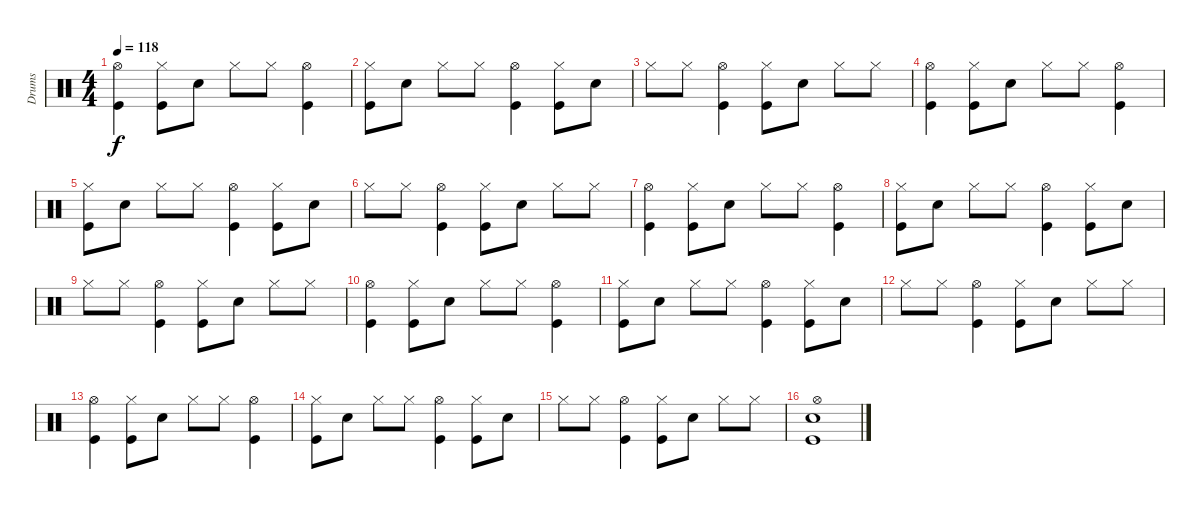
\track ("Drums" "Drums") {instrument percussion}
\staff {score}
\articulation defaults
\ts (4 4)
\tempo 118
\clef neutral
\ks c
("Kick (hit)" "Hi-Hat (open)").4{dy f} ("Kick (hit)" "Hi-Hat (closed)").8 "Snare (hit) 2".8 "Hi-Hat (closed)".8 "Hi-Hat (closed)".8 ("Kick (hit)" "Hi-Hat (open)").4 |
("Kick (hit)" "Hi-Hat (closed)").8 "Snare (hit) 2".8 "Hi-Hat (closed)".8 "Hi-Hat (closed)".8 ("Kick (hit)" "Hi-Hat (open)").4 ("Kick (hit)" "Hi-Hat (closed)").8 "Snare (hit) 2".8 |
"Hi-Hat (closed)".8 "Hi-Hat (closed)".8 ("Kick (hit)" "Hi-Hat (open)").4 ("Kick (hit)" "Hi-Hat (closed)").8 "Snare (hit) 2".8 "Hi-Hat (closed)".8 "Hi-Hat (closed)".8 |
("Kick (hit)" "Hi-Hat (open)").4 ("Kick (hit)" "Hi-Hat (closed)").8 "Snare (hit) 2".8 "Hi-Hat (closed)".8 "Hi-Hat (closed)".8 ("Kick (hit)" "Hi-Hat (open)").4 |
("Kick (hit)" "Hi-Hat (closed)").8 "Snare (hit) 2".8 "Hi-Hat (closed)".8 "Hi-Hat (closed)".8 ("Kick (hit)" "Hi-Hat (open)").4 ("Kick (hit)" "Hi-Hat (closed)").8 "Snare (hit) 2".8 |
"Hi-Hat (closed)".8 "Hi-Hat (closed)".8 ("Kick (hit)" "Hi-Hat (open)").4 ("Kick (hit)" "Hi-Hat (closed)").8 "Snare (hit) 2".8 "Hi-Hat (closed)".8 "Hi-Hat (closed)".8 |
("Kick (hit)" "Hi-Hat (open)").4 ("Kick (hit)" "Hi-Hat (closed)").8 "Snare (hit) 2".8 "Hi-Hat (closed)".8 "Hi-Hat (closed)".8 ("Kick (hit)" "Hi-Hat (open)").4 |
("Kick (hit)" "Hi-Hat (closed)").8 "Snare (hit) 2".8 "Hi-Hat (closed)".8 "Hi-Hat (closed)".8 ("Kick (hit)" "Hi-Hat (open)").4 ("Kick (hit)" "Hi-Hat (closed)").8 "Snare (hit) 2".8 |
"Hi-Hat (closed)".8 "Hi-Hat (closed)".8 ("Kick (hit)" "Hi-Hat (open)").4 ("Kick (hit)" "Hi-Hat (closed)").8 "Snare (hit) 2".8 "Hi-Hat (closed)".8 "Hi-Hat (closed)".8 |
("Kick (hit)" "Hi-Hat (open)").4 ("Kick (hit)" "Hi-Hat (closed)").8 "Snare (hit) 2".8 "Hi-Hat (closed)".8 "Hi-Hat (closed)".8 ("Kick (hit)" "Hi-Hat (open)").4 |
("Kick (hit)" "Hi-Hat (closed)").8 "Snare (hit) 2".8 "Hi-Hat (closed)".8 "Hi-Hat (closed)".8 ("Kick (hit)" "Hi-Hat (open)").4 ("Kick (hit)" "Hi-Hat (closed)").8 "Snare (hit) 2".8 |
"Hi-Hat (closed)".8 "Hi-Hat (closed)".8 ("Kick (hit)" "Hi-Hat (open)").4 ("Kick (hit)" "Hi-Hat (closed)").8 "Snare (hit) 2".8 "Hi-Hat (closed)".8 "Hi-Hat (closed)".8 |
("Kick (hit)" "Hi-Hat (open)").4 ("Kick (hit)" "Hi-Hat (closed)").8 "Snare (hit) 2".8 "Hi-Hat (closed)".8 "Hi-Hat (closed)".8 ("Kick (hit)" "Hi-Hat (open)").4 |
("Kick (hit)" "Hi-Hat (closed)").8 "Snare (hit) 2".8 "Hi-Hat (closed)".8 "Hi-Hat (closed)".8 ("Kick (hit)" "Hi-Hat (open)").4 ("Kick (hit)" "Hi-Hat (closed)").8 "Snare (hit) 2".8 |
"Hi-Hat (closed)".8 "Hi-Hat (closed)".8 ("Kick (hit)" "Hi-Hat (open)").4 ("Kick (hit)" "Hi-Hat (closed)").8 "Snare (hit) 2".8 "Hi-Hat (closed)".8 "Hi-Hat (closed)".8 |
("Kick (hit)" "Snare (hit) 2" "Hi-Hat (open)").1
